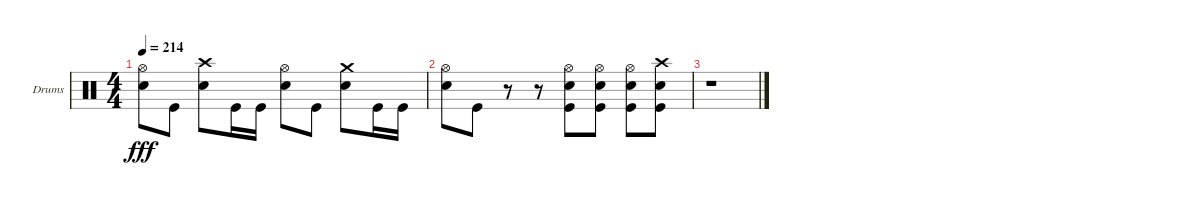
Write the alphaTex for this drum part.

\bracketExtendMode groupsimilarinstruments
\firstSystemTrackNameOrientation horizontal
\otherSystemsTrackNameOrientation horizontal
\track ("Drumkit" "Drums") {instrument percussion}
\staff {score}
\articulation defaults
\ts (4 4)
\tempo 214
\clef neutral
\ks c
("Hi-Hat (open)" "Snare (hit) 2").8{dy fff} "Kick (hit)".8 ("Crash high (hit)" "Snare (hit) 2").8 "Kick (hit)".16 "Kick (hit)".16 ("Hi-Hat (open)" "Snare (hit) 2").8 "Kick (hit)".8 ("Crash medium (hit)" "Snare (hit) 2").8 "Kick (hit)".16 "Kick (hit)".16 |
("Hi-Hat (open)" "Snare (hit) 2").8 "Kick (hit)".8 r.8 r.8 ("Hi-Hat (open)" "Snare (hit) 2" "Kick (hit)").8 ("Hi-Hat (open)" "Snare (hit) 2" "Kick (hit)").8 ("Hi-Hat (open)" "Snare (hit) 2" "Kick (hit)").8 ("Crash high (hit)" "Snare (hit) 2" "Kick (hit)").8 |
r.1
